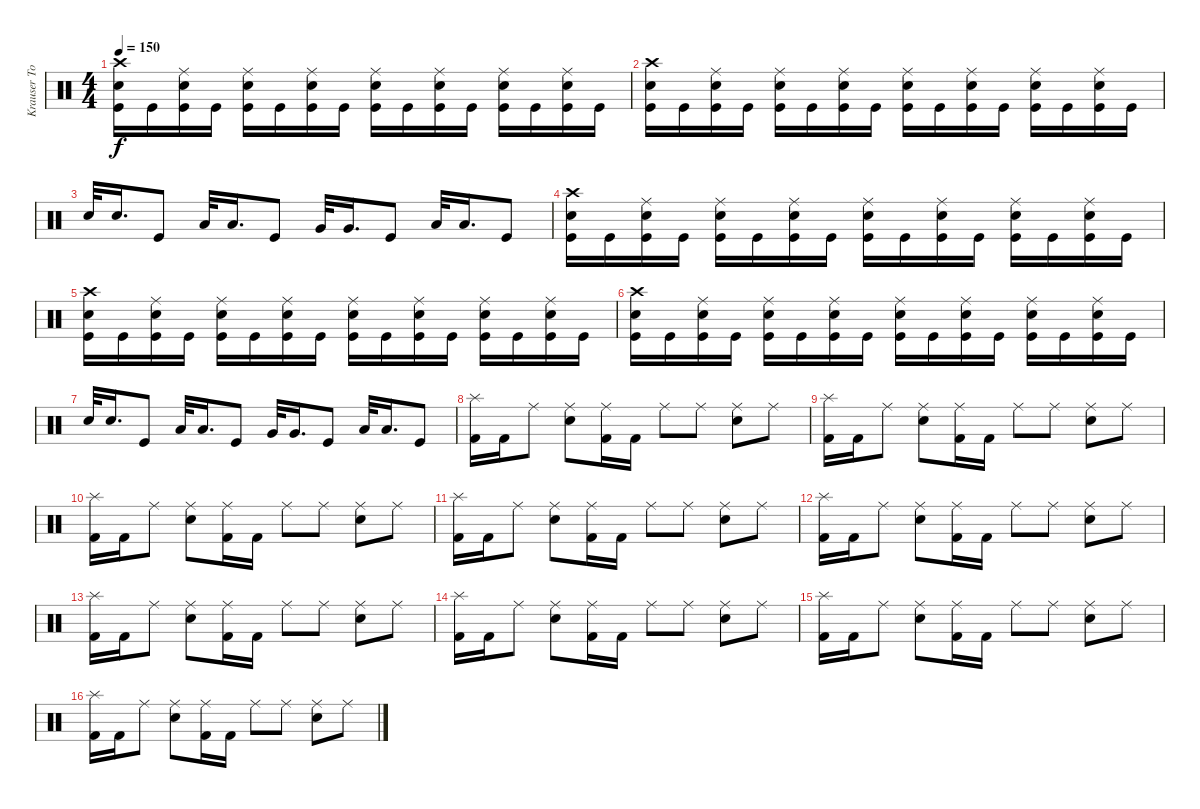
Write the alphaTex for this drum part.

\track ("Krauser Tolixon" "Krauser To") {instrument percussion}
\staff {score}
\articulation defaults
\ts (4 4)
\tempo 150
\clef neutral
\ks c
("Crash high (hit)" "Electric Snare (hit)" "Kick (hit)").16{dy f} "Kick (hit)".16 ("Ride (middle)" "Electric Snare (hit)" "Kick (hit)").16 "Kick (hit)".16 ("Ride (middle)" "Electric Snare (hit)" "Kick (hit)").16 "Kick (hit)".16 ("Ride (middle)" "Electric Snare (hit)" "Kick (hit)").16 "Kick (hit)".16 ("Ride (middle)" "Electric Snare (hit)" "Kick (hit)").16 "Kick (hit)".16 ("Ride (middle)" "Electric Snare (hit)" "Kick (hit)").16 "Kick (hit)".16 ("Ride (middle)" "Electric Snare (hit)" "Kick (hit)").16 "Kick (hit)".16 ("Ride (middle)" "Electric Snare (hit)" "Kick (hit)").16 "Kick (hit)".16 |
("Crash high (hit)" "Electric Snare (hit)" "Kick (hit)").16 "Kick (hit)".16 ("Ride (middle)" "Electric Snare (hit)" "Kick (hit)").16 "Kick (hit)".16 ("Ride (middle)" "Electric Snare (hit)" "Kick (hit)").16 "Kick (hit)".16 ("Ride (middle)" "Electric Snare (hit)" "Kick (hit)").16 "Kick (hit)".16 ("Ride (middle)" "Electric Snare (hit)" "Kick (hit)").16 "Kick (hit)".16 ("Ride (middle)" "Electric Snare (hit)" "Kick (hit)").16 "Kick (hit)".16 ("Ride (middle)" "Electric Snare (hit)" "Kick (hit)").16 "Kick (hit)".16 ("Ride (middle)" "Electric Snare (hit)" "Kick (hit)").16 "Kick (hit)".16 |
"Electric Snare (hit)".32 "Electric Snare (hit)".16{d} "Kick (hit)".8 "Low Tom (hit)".32 "Low Tom (hit)".16{d} "Kick (hit)".8 "Very Low Tom (hit)".32 "Very Low Tom (hit)".16{d} "Kick (hit)".8 "Low Floor Tom (hit)".32 "Low Floor Tom (hit)".16{d} "Kick (hit)".8 |
("Crash high (hit)" "Electric Snare (hit)" "Kick (hit)").16 "Kick (hit)".16 ("Ride (middle)" "Electric Snare (hit)" "Kick (hit)").16 "Kick (hit)".16 ("Ride (middle)" "Electric Snare (hit)" "Kick (hit)").16 "Kick (hit)".16 ("Ride (middle)" "Electric Snare (hit)" "Kick (hit)").16 "Kick (hit)".16 ("Ride (middle)" "Electric Snare (hit)" "Kick (hit)").16 "Kick (hit)".16 ("Ride (middle)" "Electric Snare (hit)" "Kick (hit)").16 "Kick (hit)".16 ("Ride (middle)" "Electric Snare (hit)" "Kick (hit)").16 "Kick (hit)".16 ("Ride (middle)" "Electric Snare (hit)" "Kick (hit)").16 "Kick (hit)".16 |
("Crash high (hit)" "Electric Snare (hit)" "Kick (hit)").16 "Kick (hit)".16 ("Ride (middle)" "Electric Snare (hit)" "Kick (hit)").16 "Kick (hit)".16 ("Ride (middle)" "Electric Snare (hit)" "Kick (hit)").16 "Kick (hit)".16 ("Ride (middle)" "Electric Snare (hit)" "Kick (hit)").16 "Kick (hit)".16 ("Ride (middle)" "Electric Snare (hit)" "Kick (hit)").16 "Kick (hit)".16 ("Ride (middle)" "Electric Snare (hit)" "Kick (hit)").16 "Kick (hit)".16 ("Ride (middle)" "Electric Snare (hit)" "Kick (hit)").16 "Kick (hit)".16 ("Ride (middle)" "Electric Snare (hit)" "Kick (hit)").16 "Kick (hit)".16 |
("Crash high (hit)" "Electric Snare (hit)" "Kick (hit)").16 "Kick (hit)".16 ("Ride (middle)" "Electric Snare (hit)" "Kick (hit)").16 "Kick (hit)".16 ("Ride (middle)" "Electric Snare (hit)" "Kick (hit)").16 "Kick (hit)".16 ("Ride (middle)" "Electric Snare (hit)" "Kick (hit)").16 "Kick (hit)".16 ("Ride (middle)" "Electric Snare (hit)" "Kick (hit)").16 "Kick (hit)".16 ("Ride (middle)" "Electric Snare (hit)" "Kick (hit)").16 "Kick (hit)".16 ("Ride (middle)" "Electric Snare (hit)" "Kick (hit)").16 "Kick (hit)".16 ("Ride (middle)" "Electric Snare (hit)" "Kick (hit)").16 "Kick (hit)".16 |
"Electric Snare (hit)".32 "Electric Snare (hit)".16{d} "Kick (hit)".8 "Low Tom (hit)".32 "Low Tom (hit)".16{d} "Kick (hit)".8 "Very Low Tom (hit)".32 "Very Low Tom (hit)".16{d} "Kick (hit)".8 "Low Floor Tom (hit)".32 "Low Floor Tom (hit)".16{d} "Kick (hit)".8 |
("Splash (hit)" "Kick (hit) 2").16 "Kick (hit) 2".16 "Ride (middle)".8 ("Ride (middle)" "Electric Snare (hit)").8 ("Ride (middle)" "Kick (hit) 2").16 "Kick (hit) 2".16 "Ride (middle)".8 "Ride (middle)".8 ("Ride (middle)" "Electric Snare (hit)").8 "Ride (middle)".8 |
("Splash (hit)" "Kick (hit) 2").16 "Kick (hit) 2".16 "Ride (middle)".8 ("Ride (middle)" "Electric Snare (hit)").8 ("Ride (middle)" "Kick (hit) 2").16 "Kick (hit) 2".16 "Ride (middle)".8 "Ride (middle)".8 ("Ride (middle)" "Electric Snare (hit)").8 "Ride (middle)".8 |
("Splash (hit)" "Kick (hit) 2").16 "Kick (hit) 2".16 "Ride (middle)".8 ("Ride (middle)" "Electric Snare (hit)").8 ("Ride (middle)" "Kick (hit) 2").16 "Kick (hit) 2".16 "Ride (middle)".8 "Ride (middle)".8 ("Ride (middle)" "Electric Snare (hit)").8 "Ride (middle)".8 |
("Splash (hit)" "Kick (hit) 2").16 "Kick (hit) 2".16 "Ride (middle)".8 ("Ride (middle)" "Electric Snare (hit)").8 ("Ride (middle)" "Kick (hit) 2").16 "Kick (hit) 2".16 "Ride (middle)".8 "Ride (middle)".8 ("Ride (middle)" "Electric Snare (hit)").8 "Ride (middle)".8 |
("Splash (hit)" "Kick (hit) 2").16 "Kick (hit) 2".16 "Ride (middle)".8 ("Ride (middle)" "Electric Snare (hit)").8 ("Ride (middle)" "Kick (hit) 2").16 "Kick (hit) 2".16 "Ride (middle)".8 "Ride (middle)".8 ("Ride (middle)" "Electric Snare (hit)").8 "Ride (middle)".8 |
("Splash (hit)" "Kick (hit) 2").16 "Kick (hit) 2".16 "Ride (middle)".8 ("Ride (middle)" "Electric Snare (hit)").8 ("Ride (middle)" "Kick (hit) 2").16 "Kick (hit) 2".16 "Ride (middle)".8 "Ride (middle)".8 ("Ride (middle)" "Electric Snare (hit)").8 "Ride (middle)".8 |
("Splash (hit)" "Kick (hit) 2").16 "Kick (hit) 2".16 "Ride (middle)".8 ("Ride (middle)" "Electric Snare (hit)").8 ("Ride (middle)" "Kick (hit) 2").16 "Kick (hit) 2".16 "Ride (middle)".8 "Ride (middle)".8 ("Ride (middle)" "Electric Snare (hit)").8 "Ride (middle)".8 |
("Splash (hit)" "Kick (hit) 2").16 "Kick (hit) 2".16 "Ride (middle)".8 ("Ride (middle)" "Electric Snare (hit)").8 ("Ride (middle)" "Kick (hit) 2").16 "Kick (hit) 2".16 "Ride (middle)".8 "Ride (middle)".8 ("Ride (middle)" "Electric Snare (hit)").8 "Ride (middle)".8 |
("Splash (hit)" "Kick (hit) 2").16 "Kick (hit) 2".16 "Ride (middle)".8 ("Ride (middle)" "Electric Snare (hit)").8 ("Ride (middle)" "Kick (hit) 2").16 "Kick (hit) 2".16 "Ride (middle)".8 "Ride (middle)".8 ("Ride (middle)" "Electric Snare (hit)").8 "Ride (middle)".8
